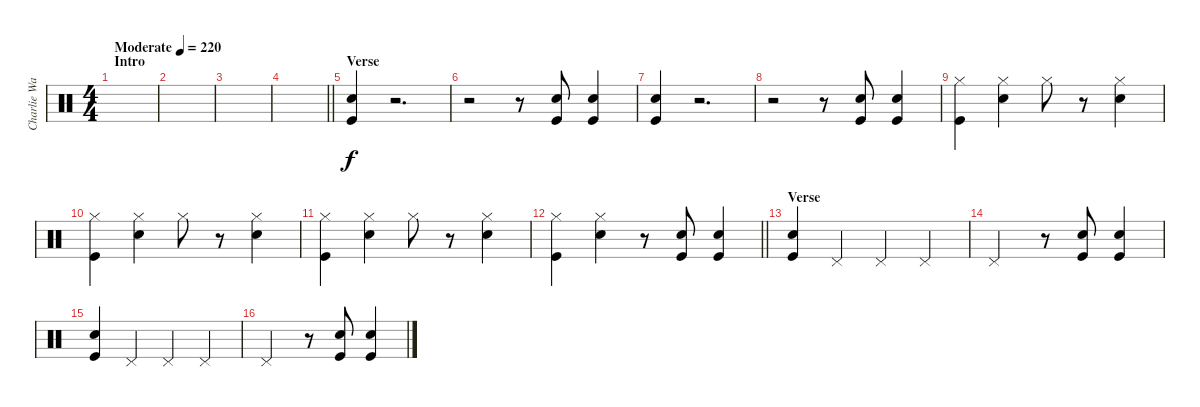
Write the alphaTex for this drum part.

\track ("Charlie Watts" "Charlie Wa") {instrument percussion}
\staff {score}
\articulation defaults
\ts (4 4)
\section ("" "Intro")
\tempo (220 "Moderate")
\clef neutral
\ks c
|
|
|
\barLineRight lightlight
|
\section ("" "Verse")
("Snare (hit) 2" "Kick (hit)").4 r.2{d} |
r.2 r.8 ("Snare (hit) 2" "Kick (hit)").8 ("Snare (hit) 2" "Kick (hit)").4 |
("Snare (hit) 2" "Kick (hit)").4 r.2{d} |
r.2 r.8 ("Snare (hit) 2" "Kick (hit)").8 ("Snare (hit) 2" "Kick (hit)").4 |
("Hi-Hat (closed)" "Kick (hit)").4 ("Hi-Hat (closed)" "Snare (hit) 2").4 "Hi-Hat (closed)".8 r.8 ("Hi-Hat (closed)" "Snare (hit) 2").4 |
("Hi-Hat (closed)" "Kick (hit)").4 ("Hi-Hat (closed)" "Snare (hit) 2").4 "Hi-Hat (closed)".8 r.8 ("Hi-Hat (closed)" "Snare (hit) 2").4 |
("Hi-Hat (closed)" "Kick (hit)").4 ("Hi-Hat (closed)" "Snare (hit) 2").4 "Hi-Hat (closed)".8 r.8 ("Hi-Hat (closed)" "Snare (hit) 2").4 |
\barLineRight lightlight
("Hi-Hat (closed)" "Kick (hit)").4 ("Hi-Hat (closed)" "Snare (hit) 2").4 r.8 ("Snare (hit) 2" "Kick (hit)").8 ("Snare (hit) 2" "Kick (hit)").4 |
\section ("" "Verse")
("Snare (hit) 2" "Kick (hit)").4 "Pedal Hi-Hat (hit)".4 "Pedal Hi-Hat (hit)".4 "Pedal Hi-Hat (hit)".4 |
"Pedal Hi-Hat (hit)".2 r.8 ("Snare (hit) 2" "Kick (hit)").8 ("Snare (hit) 2" "Kick (hit)").4 |
("Snare (hit) 2" "Kick (hit)").4 "Pedal Hi-Hat (hit)".4 "Pedal Hi-Hat (hit)".4 "Pedal Hi-Hat (hit)".4 |
"Pedal Hi-Hat (hit)".2 r.8 ("Snare (hit) 2" "Kick (hit)").8 ("Snare (hit) 2" "Kick (hit)").4
